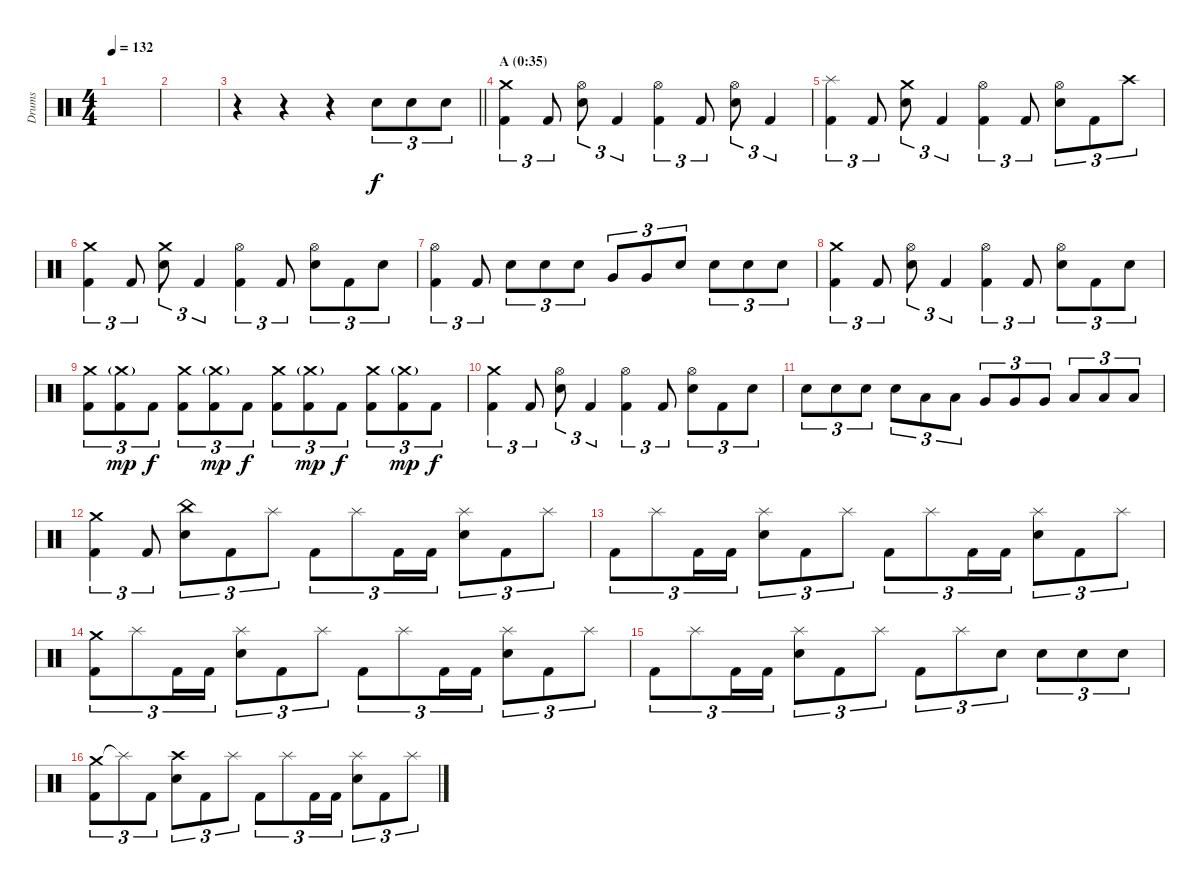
\track ("Drums" "Drums") {instrument percussion}
\staff {score}
\articulation defaults
\ts (4 4)
\tempo 132
\clef neutral
\ks c
|
|
\barLineRight lightlight
r.4 r.4 r.4 "Electric Snare (hit)".8{tu (3 2)} "Electric Snare (hit)".8{tu (3 2)} "Electric Snare (hit)".8{tu (3 2)} |
\section ("" "A (0:35)")
("Crash medium (hit)" "Kick (hit) 2").4{tu (3 2)} "Kick (hit) 2".8{tu (3 2)} ("Hi-Hat (open)" "Electric Snare (hit)").8{tu (3 2)} "Kick (hit) 2".4{tu (3 2)} ("Hi-Hat (open)" "Kick (hit) 2").4{tu (3 2)} "Kick (hit) 2".8{tu (3 2)} ("Hi-Hat (open)" "Electric Snare (hit)").8{tu (3 2)} "Kick (hit) 2".4{tu (3 2)} |
("Splash (hit)" "Kick (hit) 2").4{tu (3 2)} "Kick (hit) 2".8{tu (3 2)} ("Crash medium (hit)" "Electric Snare (hit)").8{tu (3 2)} "Kick (hit) 2".4{tu (3 2)} ("Hi-Hat (open)" "Kick (hit) 2").4{tu (3 2)} "Kick (hit) 2".8{tu (3 2)} ("Hi-Hat (open)" "Electric Snare (hit)").8{tu (3 2)} "Kick (hit) 2".8{tu (3 2)} "Crash high (hit)".8{tu (3 2)} |
("Crash medium (hit)" "Kick (hit) 2").4{tu (3 2)} "Kick (hit) 2".8{tu (3 2)} ("Crash medium (hit)" "Electric Snare (hit)").8{tu (3 2)} "Kick (hit) 2".4{tu (3 2)} ("Hi-Hat (open)" "Kick (hit) 2").4{tu (3 2)} "Kick (hit) 2".8{tu (3 2)} ("Hi-Hat (open)" "Electric Snare (hit)").8{tu (3 2)} "Kick (hit) 2".8{tu (3 2)} "Electric Snare (hit)".8{tu (3 2)} |
("Hi-Hat (open)" "Kick (hit) 2").4{tu (3 2)} "Kick (hit) 2".8{tu (3 2)} "Electric Snare (hit)".8{tu (3 2)} "Electric Snare (hit)".8{tu (3 2)} "Electric Snare (hit)".8{tu (3 2)} "Very Low Tom (hit)".8{tu (3 2)} "Very Low Tom (hit)".8{tu (3 2)} "Electric Snare (hit)".8{tu (3 2)} "Electric Snare (hit)".8{tu (3 2)} "Electric Snare (hit)".8{tu (3 2)} "Electric Snare (hit)".8{tu (3 2)} |
("Crash medium (hit)" "Kick (hit) 2").4{tu (3 2)} "Kick (hit) 2".8{tu (3 2)} ("Hi-Hat (open)" "Electric Snare (hit)").8{tu (3 2)} "Kick (hit) 2".4{tu (3 2)} ("Hi-Hat (open)" "Kick (hit) 2").4{tu (3 2)} "Kick (hit) 2".8{tu (3 2)} ("Hi-Hat (open)" "Electric Snare (hit)").8{tu (3 2)} "Kick (hit) 2".8{tu (3 2)} "Electric Snare (hit)".8{tu (3 2)} |
("Crash medium (hit)" "Kick (hit) 2").8{tu (3 2)} ("Crash medium (hit)"{g} "Kick (hit) 2").8{tu (3 2) dy mp} "Kick (hit) 2".8{tu (3 2) dy f} ("Crash medium (hit)" "Kick (hit) 2").8{tu (3 2)} ("Crash medium (hit)"{g} "Kick (hit) 2").8{tu (3 2) dy mp} "Kick (hit) 2".8{tu (3 2) dy f} ("Crash medium (hit)" "Kick (hit) 2").8{tu (3 2)} ("Crash medium (hit)"{g} "Kick (hit) 2").8{tu (3 2) dy mp} "Kick (hit) 2".8{tu (3 2) dy f} ("Crash medium (hit)" "Kick (hit) 2").8{tu (3 2)} ("Crash medium (hit)"{g} "Kick (hit) 2").8{tu (3 2) dy mp} "Kick (hit) 2".8{tu (3 2) dy f} |
("Crash medium (hit)" "Kick (hit) 2").4{tu (3 2)} "Kick (hit) 2".8{tu (3 2)} ("Hi-Hat (open)" "Electric Snare (hit)").8{tu (3 2)} "Kick (hit) 2".4{tu (3 2)} ("Hi-Hat (open)" "Kick (hit) 2").4{tu (3 2)} "Kick (hit) 2".8{tu (3 2)} ("Hi-Hat (open)" "Electric Snare (hit)").8{tu (3 2)} "Kick (hit) 2".8{tu (3 2)} "Electric Snare (hit)".8{tu (3 2)} |
"Electric Snare (hit)".8{tu (3 2)} "Electric Snare (hit)".8{tu (3 2)} "Electric Snare (hit)".8{tu (3 2)} "Electric Snare (hit)".8{tu (3 2)} "Low Tom (hit)".8{tu (3 2)} "Low Tom (hit)".8{tu (3 2)} "Very Low Tom (hit)".8{tu (3 2)} "Very Low Tom (hit)".8{tu (3 2)} "Very Low Tom (hit)".8{tu (3 2)} "Low Floor Tom (hit)".8{tu (3 2)} "Low Floor Tom (hit)".8{tu (3 2)} "Low Floor Tom (hit)".8{tu (3 2)} |
("Crash medium (hit)" "Kick (hit) 2").4{tu (3 2)} "Kick (hit) 2".8{tu (3 2)} ("China (hit)" "Electric Snare (hit)").8{tu (3 2)} "Kick (hit) 2".8{tu (3 2)} "Splash (hit)".8{tu (3 2)} "Kick (hit) 2".8{tu (3 2)} "Splash (hit)".8{tu (3 2)} "Kick (hit) 2".16{tu (3 2)} "Kick (hit) 2".16{tu (3 2)} ("Splash (hit)" "Electric Snare (hit)").8{tu (3 2)} "Kick (hit) 2".8{tu (3 2)} "Splash (hit)".8{tu (3 2)} |
"Kick (hit) 2".8{tu (3 2)} "Splash (hit)".8{tu (3 2)} "Kick (hit) 2".16{tu (3 2)} "Kick (hit) 2".16{tu (3 2)} ("Splash (hit)" "Electric Snare (hit)").8{tu (3 2)} "Kick (hit) 2".8{tu (3 2)} "Splash (hit)".8{tu (3 2)} "Kick (hit) 2".8{tu (3 2)} "Splash (hit)".8{tu (3 2)} "Kick (hit) 2".16{tu (3 2)} "Kick (hit) 2".16{tu (3 2)} ("Splash (hit)" "Electric Snare (hit)").8{tu (3 2)} "Kick (hit) 2".8{tu (3 2)} "Splash (hit)".8{tu (3 2)} |
("Crash medium (hit)" "Kick (hit) 2").8{tu (3 2)} "Splash (hit)".8{tu (3 2)} "Kick (hit) 2".16{tu (3 2)} "Kick (hit) 2".16{tu (3 2)} ("Splash (hit)" "Electric Snare (hit)").8{tu (3 2)} "Kick (hit) 2".8{tu (3 2)} "Splash (hit)".8{tu (3 2)} "Kick (hit) 2".8{tu (3 2)} "Splash (hit)".8{tu (3 2)} "Kick (hit) 2".16{tu (3 2)} "Kick (hit) 2".16{tu (3 2)} ("Splash (hit)" "Electric Snare (hit)").8{tu (3 2)} "Kick (hit) 2".8{tu (3 2)} "Splash (hit)".8{tu (3 2)} |
"Kick (hit) 2".8{tu (3 2)} "Splash (hit)".8{tu (3 2)} "Kick (hit) 2".16{tu (3 2)} "Kick (hit) 2".16{tu (3 2)} ("Splash (hit)" "Electric Snare (hit)").8{tu (3 2)} "Kick (hit) 2".8{tu (3 2)} "Splash (hit)".8{tu (3 2)} "Kick (hit) 2".8{tu (3 2)} "Splash (hit)".8{tu (3 2)} "Electric Snare (hit)".8{tu (3 2)} "Electric Snare (hit)".8{tu (3 2)} "Electric Snare (hit)".8{tu (3 2)} "Electric Snare (hit)".8{tu (3 2)} |
("Crash medium (hit)" "Kick (hit) 2").8{tu (3 2)} "Splash (hit)"{t}.8{tu (3 2)} "Kick (hit) 2".8{tu (3 2)} ("Crash high (hit)" "Electric Snare (hit)").8{tu (3 2)} "Kick (hit) 2".8{tu (3 2)} "Splash (hit)".8{tu (3 2)} "Kick (hit) 2".8{tu (3 2)} "Splash (hit)".8{tu (3 2)} "Kick (hit) 2".16{tu (3 2)} "Kick (hit) 2".16{tu (3 2)} ("Splash (hit)" "Electric Snare (hit)").8{tu (3 2)} "Kick (hit) 2".8{tu (3 2)} "Splash (hit)".8{tu (3 2)}
